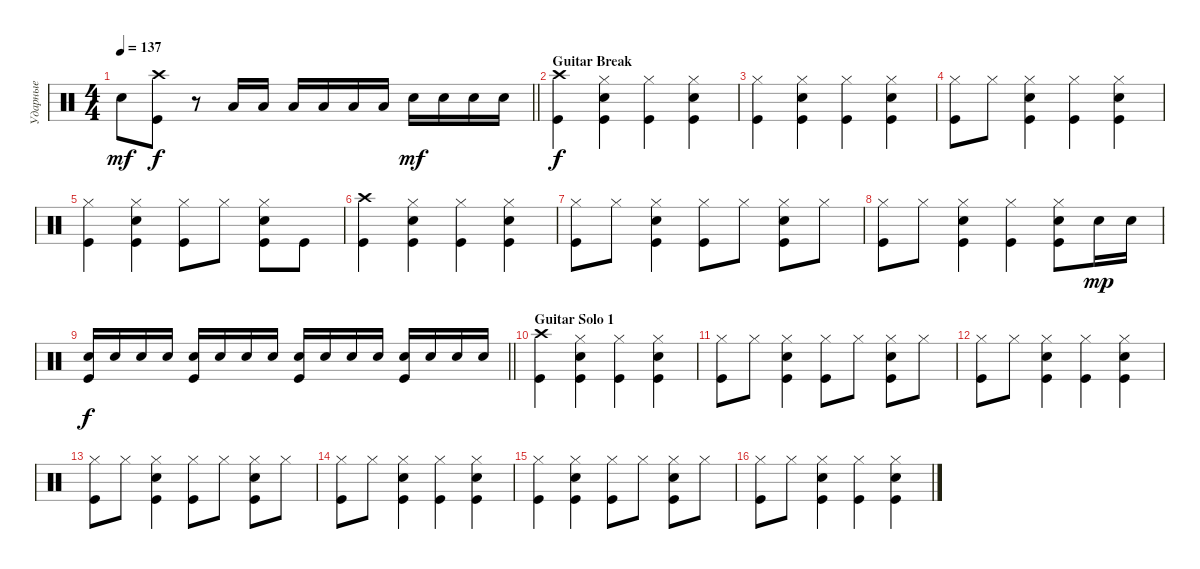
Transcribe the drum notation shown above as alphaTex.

\track ("Ударные" "Ударные") {instrument percussion}
\staff {score}
\articulation defaults
\ts (4 4)
\tempo 137
\clef neutral
\barLineRight lightlight
\ks aminor "Snare (hit) 2".8{dy mf}
("Kick (hit)" "Crash high (hit)").8{dy f} r.8 "Low Tom (hit)".16 "Low Tom (hit)".16 "Low Tom (hit)".16 "Low Tom (hit)".16 "Low Tom (hit)".16 "Low Tom (hit)".16 "Snare (hit) 2".16{dy mf} "Snare (hit) 2".16 "Snare (hit) 2".16 "Snare (hit) 2".16 |
\section ("" "Guitar Break")
("Kick (hit)" "Crash high (hit)").4{dy f} ("Snare (hit) 2" "Hi-Hat (closed)" "Kick (hit)").4 ("Kick (hit)" "Hi-Hat (closed)").4 ("Snare (hit) 2" "Hi-Hat (closed)" "Kick (hit)").4 |
("Kick (hit)" "Hi-Hat (closed)").4 ("Snare (hit) 2" "Hi-Hat (closed)" "Kick (hit)").4 ("Kick (hit)" "Hi-Hat (closed)").4 ("Snare (hit) 2" "Hi-Hat (closed)" "Kick (hit)").4 |
("Kick (hit)" "Hi-Hat (closed)").8 "Hi-Hat (closed)".8 ("Snare (hit) 2" "Hi-Hat (closed)" "Kick (hit)").4 ("Kick (hit)" "Hi-Hat (closed)").4 ("Snare (hit) 2" "Hi-Hat (closed)" "Kick (hit)").4 |
("Kick (hit)" "Hi-Hat (closed)").4 ("Snare (hit) 2" "Hi-Hat (closed)" "Kick (hit)").4 ("Kick (hit)" "Hi-Hat (closed)").8 "Hi-Hat (closed)".8 ("Snare (hit) 2" "Hi-Hat (closed)" "Kick (hit)").8 "Kick (hit)".8 |
("Kick (hit)" "Crash high (hit)").4 ("Snare (hit) 2" "Hi-Hat (closed)" "Kick (hit)").4 ("Kick (hit)" "Hi-Hat (closed)").4 ("Snare (hit) 2" "Hi-Hat (closed)" "Kick (hit)").4 |
("Kick (hit)" "Hi-Hat (closed)").8 "Hi-Hat (closed)".8 ("Snare (hit) 2" "Hi-Hat (closed)" "Kick (hit)").4 ("Kick (hit)" "Hi-Hat (closed)").8 "Hi-Hat (closed)".8 ("Snare (hit) 2" "Hi-Hat (closed)" "Kick (hit)").8 "Hi-Hat (closed)".8 |
("Kick (hit)" "Hi-Hat (closed)").8 "Hi-Hat (closed)".8 ("Snare (hit) 2" "Hi-Hat (closed)" "Kick (hit)").4 ("Kick (hit)" "Hi-Hat (closed)").4 ("Snare (hit) 2" "Hi-Hat (closed)" "Kick (hit)").8 "Snare (hit) 2".16{dy mp} "Snare (hit) 2".16 |
\barLineRight lightlight
("Snare (hit) 2" "Kick (hit)").16{dy f} "Snare (hit) 2".16 "Snare (hit) 2".16 "Snare (hit) 2".16 ("Snare (hit) 2" "Kick (hit)").16 "Snare (hit) 2".16 "Snare (hit) 2".16 "Snare (hit) 2".16 ("Snare (hit) 2" "Kick (hit)").16 "Snare (hit) 2".16 "Snare (hit) 2".16 "Snare (hit) 2".16 ("Snare (hit) 2" "Kick (hit)").16 "Snare (hit) 2".16 "Snare (hit) 2".16 "Snare (hit) 2".16 |
\section ("" "Guitar Solo 1")
("Kick (hit)" "Crash high (hit)").4 ("Snare (hit) 2" "Hi-Hat (closed)" "Kick (hit)").4 ("Kick (hit)" "Hi-Hat (closed)").4 ("Snare (hit) 2" "Hi-Hat (closed)" "Kick (hit)").4 |
("Kick (hit)" "Hi-Hat (closed)").8 "Hi-Hat (closed)".8 ("Snare (hit) 2" "Hi-Hat (closed)" "Kick (hit)").4 ("Kick (hit)" "Hi-Hat (closed)").8 "Hi-Hat (closed)".8 ("Snare (hit) 2" "Hi-Hat (closed)" "Kick (hit)").8 "Hi-Hat (closed)".8 |
("Kick (hit)" "Hi-Hat (closed)").8 "Hi-Hat (closed)".8 ("Snare (hit) 2" "Hi-Hat (closed)" "Kick (hit)").4 ("Kick (hit)" "Hi-Hat (closed)").4 ("Snare (hit) 2" "Hi-Hat (closed)" "Kick (hit)").4 |
("Kick (hit)" "Hi-Hat (closed)").8 "Hi-Hat (closed)".8 ("Snare (hit) 2" "Hi-Hat (closed)" "Kick (hit)").4 ("Kick (hit)" "Hi-Hat (closed)").8 "Hi-Hat (closed)".8 ("Snare (hit) 2" "Hi-Hat (closed)" "Kick (hit)").8 "Hi-Hat (closed)".8 |
("Kick (hit)" "Hi-Hat (closed)").8 "Hi-Hat (closed)".8 ("Snare (hit) 2" "Hi-Hat (closed)" "Kick (hit)").4 ("Kick (hit)" "Hi-Hat (closed)").4 ("Snare (hit) 2" "Hi-Hat (closed)" "Kick (hit)").4 |
("Kick (hit)" "Hi-Hat (closed)").4 ("Snare (hit) 2" "Hi-Hat (closed)" "Kick (hit)").4 ("Kick (hit)" "Hi-Hat (closed)").8 "Hi-Hat (closed)".8 ("Snare (hit) 2" "Hi-Hat (closed)" "Kick (hit)").8 "Hi-Hat (closed)".8 |
("Kick (hit)" "Hi-Hat (closed)").8 "Hi-Hat (closed)".8 ("Snare (hit) 2" "Hi-Hat (closed)" "Kick (hit)").4 ("Kick (hit)" "Hi-Hat (closed)").4 ("Snare (hit) 2" "Hi-Hat (closed)" "Kick (hit)").4
